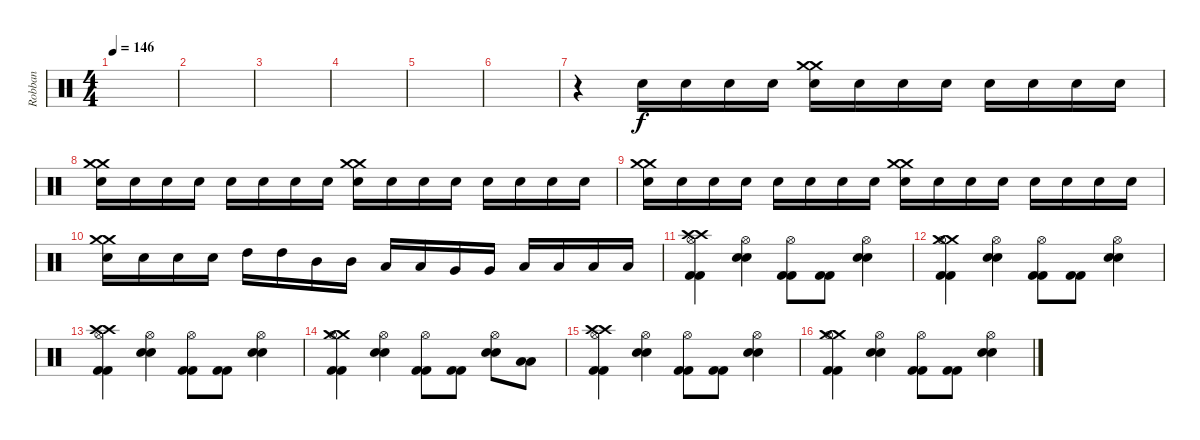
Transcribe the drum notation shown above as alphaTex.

\track ("Robban" "Robban") {instrument percussion}
\staff {score}
\articulation defaults
\ts (4 4)
\tempo 146
\clef neutral
\ks c
|
|
|
|
|
|
r.4 "Electric Snare (hit)".16 "Electric Snare (hit)".16 "Electric Snare (hit)".16 "Electric Snare (hit)".16 ("Crash medium (hit)" "Crash medium (hit)" "Electric Snare (hit)").16 "Electric Snare (hit)".16 "Electric Snare (hit)".16 "Electric Snare (hit)".16 "Electric Snare (hit)".16 "Electric Snare (hit)".16 "Electric Snare (hit)".16 "Electric Snare (hit)".16 |
("Crash medium (hit)" "Crash medium (hit)" "Electric Snare (hit)").16 "Electric Snare (hit)".16 "Electric Snare (hit)".16 "Electric Snare (hit)".16 "Electric Snare (hit)".16 "Electric Snare (hit)".16 "Electric Snare (hit)".16 "Electric Snare (hit)".16 ("Crash medium (hit)" "Crash medium (hit)" "Electric Snare (hit)").16 "Electric Snare (hit)".16 "Electric Snare (hit)".16 "Electric Snare (hit)".16 "Electric Snare (hit)".16 "Electric Snare (hit)".16 "Electric Snare (hit)".16 "Electric Snare (hit)".16 |
("Crash medium (hit)" "Crash medium (hit)" "Electric Snare (hit)").16 "Electric Snare (hit)".16 "Electric Snare (hit)".16 "Electric Snare (hit)".16 "Electric Snare (hit)".16 "Electric Snare (hit)".16 "Electric Snare (hit)".16 "Electric Snare (hit)".16 ("Crash medium (hit)" "Crash medium (hit)" "Electric Snare (hit)").16 "Electric Snare (hit)".16 "Electric Snare (hit)".16 "Electric Snare (hit)".16 "Electric Snare (hit)".16 "Electric Snare (hit)".16 "Electric Snare (hit)".16 "Electric Snare (hit)".16 |
("Crash medium (hit)" "Crash medium (hit)" "Electric Snare (hit)").16 "Electric Snare (hit)".16 "Electric Snare (hit)".16 "Electric Snare (hit)".16 "High Tom (hit)".16 "High Tom (hit)".16 "Mid Tom (hit)".16 "Mid Tom (hit)".16 "Low Tom (hit)".16 "Low Tom (hit)".16 "Very Low Tom (hit)".16 "Very Low Tom (hit)".16 "Low Floor Tom (hit)".16 "Low Floor Tom (hit)".16 "Low Floor Tom (hit)".16 "Low Floor Tom (hit)".16 |
("Crash high (hit)" "Crash high (hit)" "Hi-Hat (open)" "Kick (hit) 2" "Kick (hit) 2").4 ("Hi-Hat (open)" "Electric Snare (hit)" "Electric Snare (hit)").4 ("Hi-Hat (open)" "Kick (hit) 2" "Kick (hit) 2").8 ("Kick (hit) 2" "Kick (hit) 2").8 ("Hi-Hat (open)" "Electric Snare (hit)" "Electric Snare (hit)").4 |
("Crash medium (hit)" "Crash medium (hit)" "Hi-Hat (open)" "Kick (hit) 2" "Kick (hit) 2").4 ("Hi-Hat (open)" "Electric Snare (hit)" "Electric Snare (hit)").4 ("Hi-Hat (open)" "Kick (hit) 2" "Kick (hit) 2").8 ("Kick (hit) 2" "Kick (hit) 2").8 ("Hi-Hat (open)" "Electric Snare (hit)" "Electric Snare (hit)").4 |
("Crash high (hit)" "Crash high (hit)" "Hi-Hat (open)" "Kick (hit) 2" "Kick (hit) 2").4 ("Hi-Hat (open)" "Electric Snare (hit)" "Electric Snare (hit)").4 ("Hi-Hat (open)" "Kick (hit) 2" "Kick (hit) 2").8 ("Kick (hit) 2" "Kick (hit) 2").8 ("Hi-Hat (open)" "Electric Snare (hit)" "Electric Snare (hit)").4 |
("Crash medium (hit)" "Crash medium (hit)" "Hi-Hat (open)" "Kick (hit) 2" "Kick (hit) 2").4 ("Hi-Hat (open)" "Electric Snare (hit)" "Electric Snare (hit)").4 ("Hi-Hat (open)" "Kick (hit) 2" "Kick (hit) 2").8 ("Kick (hit) 2" "Kick (hit) 2").8 ("Hi-Hat (open)" "Electric Snare (hit)" "Electric Snare (hit)").8 ("Low Floor Tom (hit)" "Low Floor Tom (hit)").8 |
("Crash high (hit)" "Crash high (hit)" "Hi-Hat (open)" "Kick (hit) 2" "Kick (hit) 2").4 ("Hi-Hat (open)" "Electric Snare (hit)" "Electric Snare (hit)").4 ("Hi-Hat (open)" "Kick (hit) 2" "Kick (hit) 2").8 ("Kick (hit) 2" "Kick (hit) 2").8 ("Hi-Hat (open)" "Electric Snare (hit)" "Electric Snare (hit)").4 |
("Crash medium (hit)" "Crash medium (hit)" "Hi-Hat (open)" "Kick (hit) 2" "Kick (hit) 2").4 ("Hi-Hat (open)" "Electric Snare (hit)" "Electric Snare (hit)").4 ("Hi-Hat (open)" "Kick (hit) 2" "Kick (hit) 2").8 ("Kick (hit) 2" "Kick (hit) 2").8 ("Hi-Hat (open)" "Electric Snare (hit)" "Electric Snare (hit)").4
